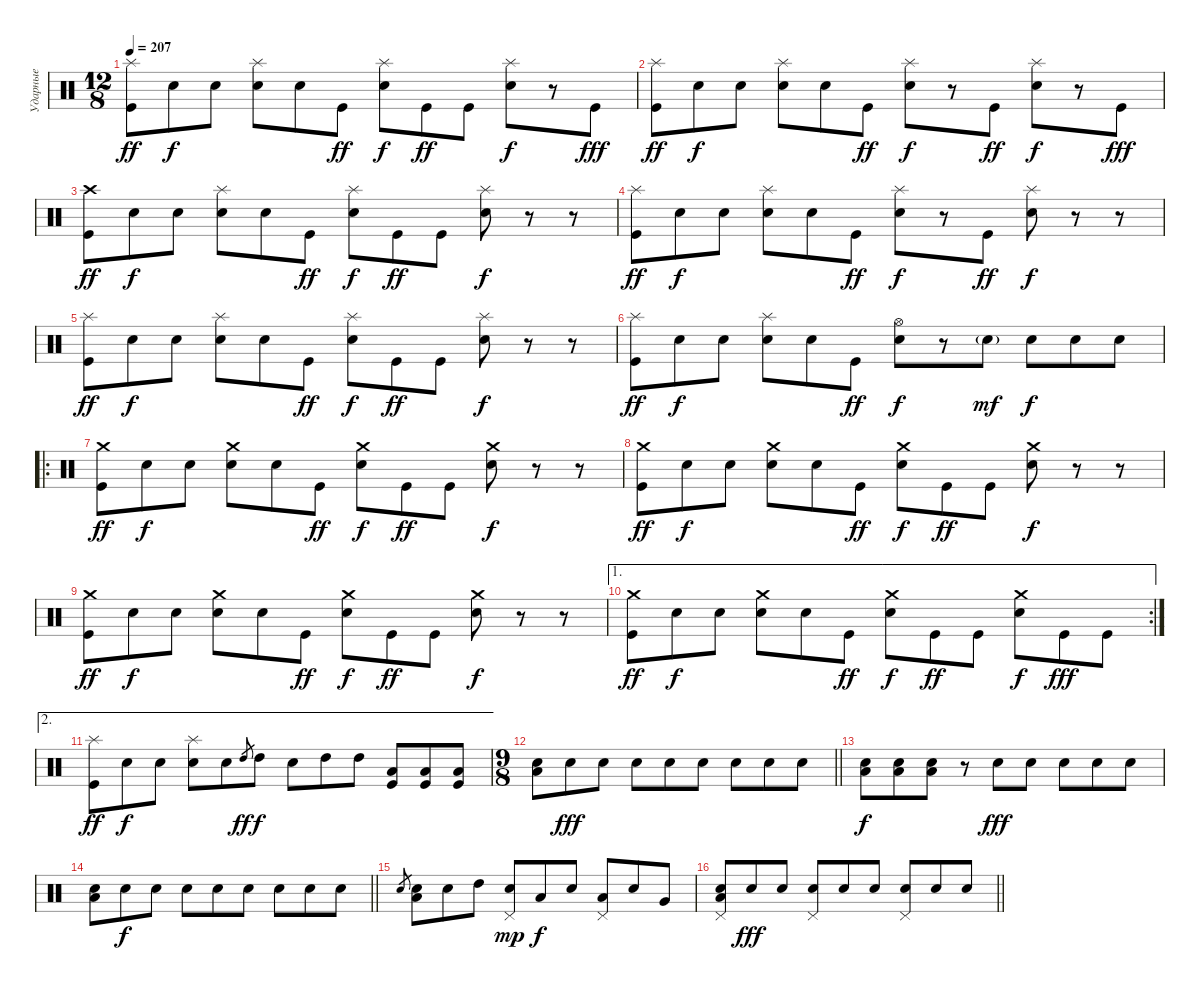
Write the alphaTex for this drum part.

\track ("Ударные" "Ударные") {instrument percussion}
\staff {score}
\articulation defaults
\ts (12 8)
\tempo 207
\clef neutral
\ks c
("Splash (hit)" "Kick (hit)").8{dy ff} "Snare (hit)".8{dy f} "Snare (hit)".8 ("Splash (hit)" "Electric Snare (hit)").8 "Snare (hit)".8 "Kick (hit)".8{dy ff} ("Splash (hit)" "Snare (hit)").8{dy f} "Kick (hit)".8{dy ff} "Kick (hit)".8 ("Splash (hit)" "Electric Snare (hit)").8{dy f} r.8 "Kick (hit)".8{dy fff} |
("Splash (hit)" "Kick (hit)").8{dy ff} "Snare (hit)".8{dy f} "Snare (hit)".8 ("Splash (hit)" "Electric Snare (hit)").8 "Snare (hit)".8 "Kick (hit)".8{dy ff} ("Splash (hit)" "Snare (hit)").8{dy f} r.8 "Kick (hit)".8{dy ff} ("Splash (hit)" "Electric Snare (hit)").8{dy f} r.8 "Kick (hit)".8{dy fff} |
("Crash high (hit)" "Kick (hit)").8{dy ff} "Snare (hit)".8{dy f} "Snare (hit)".8 ("Splash (hit)" "Electric Snare (hit)").8 "Snare (hit)".8 "Kick (hit)".8{dy ff} ("Splash (hit)" "Snare (hit)").8{dy f} "Kick (hit)".8{dy ff} "Kick (hit)".8 ("Splash (hit)" "Electric Snare (hit)").8{dy f} r.8 r.8 |
("Splash (hit)" "Kick (hit)").8{dy ff} "Snare (hit)".8{dy f} "Snare (hit)".8 ("Splash (hit)" "Electric Snare (hit)").8 "Snare (hit)".8 "Kick (hit)".8{dy ff} ("Splash (hit)" "Snare (hit)").8{dy f} r.8 "Kick (hit)".8{dy ff} ("Splash (hit)" "Electric Snare (hit)").8{dy f} r.8 r.8 |
("Splash (hit)" "Kick (hit)").8{dy ff} "Snare (hit)".8{dy f} "Snare (hit)".8 ("Splash (hit)" "Electric Snare (hit)").8 "Snare (hit)".8 "Kick (hit)".8{dy ff} ("Splash (hit)" "Snare (hit)").8{dy f} "Kick (hit)".8{dy ff} "Kick (hit)".8 ("Splash (hit)" "Electric Snare (hit)").8{dy f} r.8 r.8 |
("Splash (hit)" "Kick (hit)").8{dy ff} "Snare (hit)".8{dy f} "Snare (hit)".8 ("Splash (hit)" "Electric Snare (hit)").8 "Snare (hit)".8 "Kick (hit)".8{dy ff} ("Hi-Hat (open)" "Snare (hit)").8{dy f} r.8 "Electric Snare (hit)"{g}.8{dy mf} "Electric Snare (hit)".8{dy f} "Electric Snare (hit)".8 "Electric Snare (hit)".8 |
\ro
("Crash medium (hit)" "Kick (hit)").8{dy ff} "Snare (hit)".8{dy f} "Snare (hit)".8 ("Crash medium (hit)" "Electric Snare (hit)").8 "Snare (hit)".8 "Kick (hit)".8{dy ff} ("Crash medium (hit)" "Snare (hit)").8{dy f} "Kick (hit)".8{dy ff} "Kick (hit)".8 ("Crash medium (hit)" "Electric Snare (hit)").8{dy f} r.8 r.8 |
("Crash medium (hit)" "Kick (hit)").8{dy ff} "Snare (hit)".8{dy f} "Snare (hit)".8 ("Crash medium (hit)" "Electric Snare (hit)").8 "Snare (hit)".8 "Kick (hit)".8{dy ff} ("Crash medium (hit)" "Snare (hit)").8{dy f} "Kick (hit)".8{dy ff} "Kick (hit)".8 ("Crash medium (hit)" "Electric Snare (hit)").8{dy f} r.8 r.8 |
("Crash medium (hit)" "Kick (hit)").8{dy ff} "Snare (hit)".8{dy f} "Snare (hit)".8 ("Crash medium (hit)" "Electric Snare (hit)").8 "Snare (hit)".8 "Kick (hit)".8{dy ff} ("Crash medium (hit)" "Snare (hit)").8{dy f} "Kick (hit)".8{dy ff} "Kick (hit)".8 ("Crash medium (hit)" "Electric Snare (hit)").8{dy f} r.8 r.8 |
\ae 1
\rc 2
("Crash medium (hit)" "Kick (hit)").8{dy ff} "Snare (hit)".8{dy f} "Snare (hit)".8 ("Crash medium (hit)" "Electric Snare (hit)").8 "Snare (hit)".8 "Kick (hit)".8{dy ff} ("Crash medium (hit)" "Snare (hit)").8{dy f} "Kick (hit)".8{dy ff} "Kick (hit)".8 ("Crash medium (hit)" "Electric Snare (hit)").8{dy f} "Kick (hit)".8{dy fff} "Kick (hit)".8 |
\ae 2
("Splash (hit)" "Kick (hit)").8{dy ff} "Snare (hit)".8{dy f} "Snare (hit)".8 ("Splash (hit)" "Electric Snare (hit)").8 "Snare (hit)".8 "High Tom (hit)".8{gr dy ff} "High Tom (hit)".8{dy f} "Snare (hit)".8 "High Tom (hit)".8 "High Tom (hit)".8 ("Low Tom (hit)" "Kick (hit)").8 ("Low Tom (hit)" "Kick (hit)").8 ("Low Tom (hit)" "Kick (hit)").8 |
\ts (9 8)
\barLineRight lightlight
("Low Tom (hit)" "Electric Snare (hit)").8 "Snare (hit)".8{dy fff} "Snare (hit)".8 "Snare (hit)".8 "Snare (hit)".8 "Snare (hit)".8 "Snare (hit)".8 "Snare (hit)".8 "Snare (hit)".8 |
("Low Tom (hit)" "Electric Snare (hit)").8{dy f} ("Low Tom (hit)" "Electric Snare (hit)").8 ("Low Tom (hit)" "Electric Snare (hit)").8 r.8 "Snare (hit)".8{dy fff} "Snare (hit)".8 "Snare (hit)".8 "Snare (hit)".8 "Snare (hit)".8 |
\barLineRight lightlight
("Low Tom (hit)" "Electric Snare (hit)").8 "Snare (hit)".8{dy f} "Snare (hit)".8 "Snare (hit)".8 "Snare (hit)".8 "Snare (hit)".8 "Snare (hit)".8 "Snare (hit)".8 "Snare (hit)".8 |
"Electric Snare (hit)".8{gr} ("Low Tom (hit)" "Electric Snare (hit)").8 "Snare (hit)".8 "High Tom (hit)".8 ("Pedal Hi-Hat (hit)" "Snare (hit)").8{dy mp} "Low Tom (hit)".8{dy f} "Snare (hit)".8 ("Pedal Hi-Hat (hit)" "Low Tom (hit)").8 "Snare (hit)".8 "Very Low Tom (hit)".8 |
\barLineRight lightlight
("Pedal Hi-Hat (hit)" "Low Tom (hit)" "Electric Snare (hit)").8 "Snare (hit)".8{dy fff} "Snare (hit)".8 ("Pedal Hi-Hat (hit)" "Snare (hit)").8 "Snare (hit)".8 "Snare (hit)".8 ("Pedal Hi-Hat (hit)" "Snare (hit)").8 "Snare (hit)".8 "Snare (hit)".8
